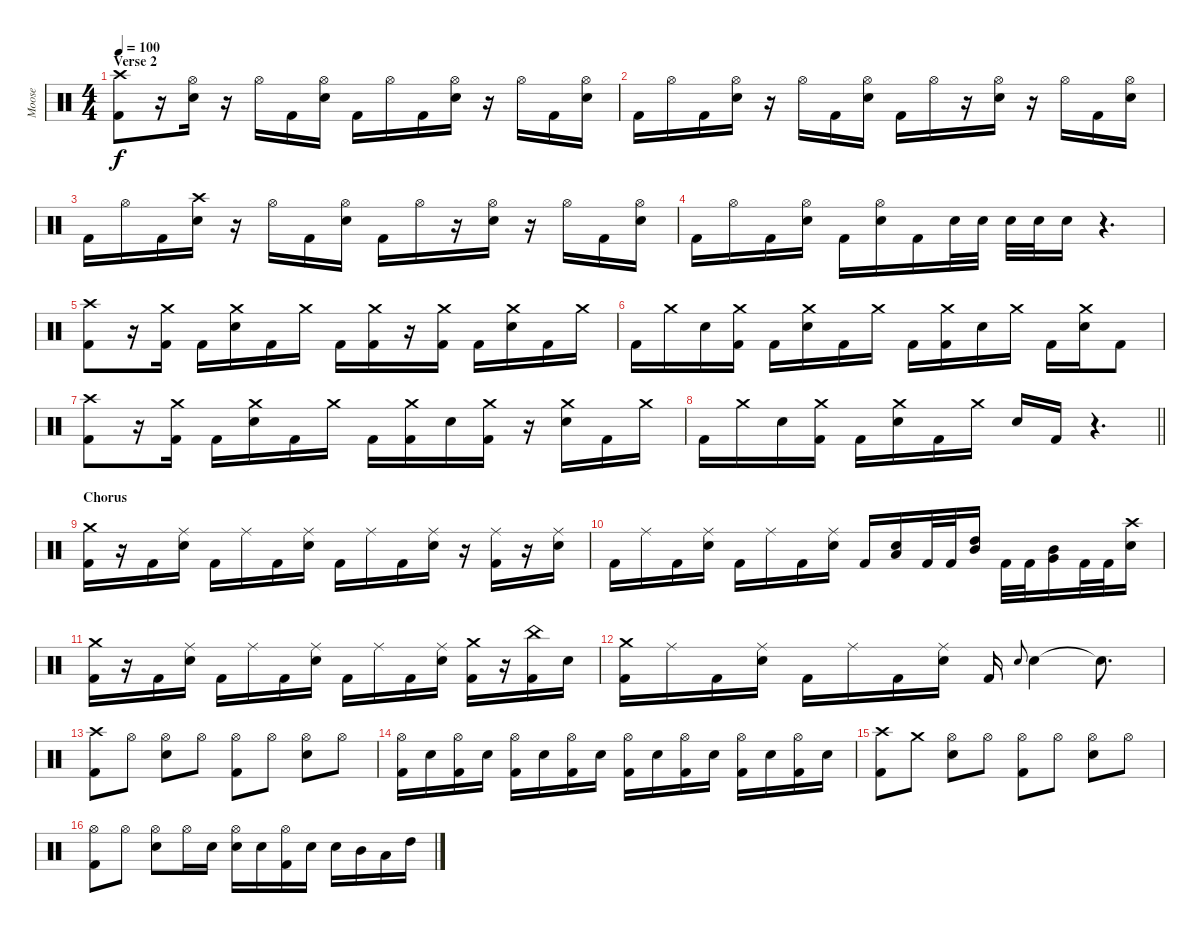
\track ("Moose" "Moose") {instrument percussion}
\staff {score}
\articulation defaults
\ts (4 4)
\section ("" "Verse 2")
\tempo 100
\clef neutral
\ks c
("Crash high (hit)" "Kick (hit) 2").8{dy f} r.16 ("Hi-Hat (open)" "Electric Snare (hit)").16 r.16 "Hi-Hat (open)".16 "Kick (hit) 2".16 ("Hi-Hat (open)" "Electric Snare (hit)").16 "Kick (hit) 2".16 "Hi-Hat (open)".16 "Kick (hit) 2".16 ("Hi-Hat (open)" "Electric Snare (hit)").16 r.16 "Hi-Hat (open)".16 "Kick (hit) 2".16 ("Hi-Hat (open)" "Electric Snare (hit)").16 |
"Kick (hit) 2".16 "Hi-Hat (open)".16 "Kick (hit) 2".16 ("Hi-Hat (open)" "Electric Snare (hit)").16 r.16 "Hi-Hat (open)".16 "Kick (hit) 2".16 ("Hi-Hat (open)" "Electric Snare (hit)").16 "Kick (hit) 2".16 "Hi-Hat (open)".16 r.16 ("Hi-Hat (open)" "Electric Snare (hit)").16 r.16 "Hi-Hat (open)".16 "Kick (hit) 2".16 ("Hi-Hat (open)" "Electric Snare (hit)").16 |
"Kick (hit) 2".16 "Hi-Hat (open)".16 "Kick (hit) 2".16 ("Crash high (hit)" "Electric Snare (hit)").16 r.16 "Hi-Hat (open)".16 "Kick (hit) 2".16 ("Hi-Hat (open)" "Electric Snare (hit)").16 "Kick (hit) 2".16 "Hi-Hat (open)".16 r.16 ("Hi-Hat (open)" "Electric Snare (hit)").16 r.16 "Hi-Hat (open)".16 "Kick (hit) 2".16 ("Hi-Hat (open)" "Electric Snare (hit)").16 |
"Kick (hit) 2".16 "Hi-Hat (open)".16 "Kick (hit) 2".16 ("Hi-Hat (open)" "Electric Snare (hit)").16 "Kick (hit) 2".16 ("Hi-Hat (open)" "Electric Snare (hit)").16 "Kick (hit) 2".16 "Electric Snare (hit)".32 "Electric Snare (hit)".32 "Electric Snare (hit)".32 "Electric Snare (hit)".32 "Electric Snare (hit)".16 r.4{d} |
("Crash high (hit)" "Kick (hit) 2").8 r.16 ("Crash medium (hit)" "Kick (hit) 2").16 "Kick (hit) 2".16 ("Crash medium (hit)" "Electric Snare (hit)").16 "Kick (hit) 2".16 "Crash medium (hit)".16 "Kick (hit) 2".16 ("Crash medium (hit)" "Kick (hit) 2").16 r.16 ("Crash medium (hit)" "Kick (hit) 2").16 "Kick (hit) 2".16 ("Crash medium (hit)" "Electric Snare (hit)").16 "Kick (hit) 2".16 "Crash medium (hit)".16 |
"Kick (hit) 2".16 "Crash medium (hit)".16 "Electric Snare (hit)".16 ("Crash medium (hit)" "Kick (hit) 2").16 "Kick (hit) 2".16 ("Crash medium (hit)" "Electric Snare (hit)").16 "Kick (hit) 2".16 "Crash medium (hit)".16 "Kick (hit) 2".16 ("Crash medium (hit)" "Kick (hit) 2").16 "Electric Snare (hit)".16 "Crash medium (hit)".16 "Kick (hit) 2".16 ("Crash medium (hit)" "Electric Snare (hit)").16 "Kick (hit) 2".8 |
("Crash high (hit)" "Kick (hit) 2").8 r.16 ("Crash medium (hit)" "Kick (hit) 2").16 "Kick (hit) 2".16 ("Crash medium (hit)" "Electric Snare (hit)").16 "Kick (hit) 2".16 "Crash medium (hit)".16 "Kick (hit) 2".16 ("Crash medium (hit)" "Kick (hit) 2").16 "Electric Snare (hit)".16 ("Crash medium (hit)" "Kick (hit) 2").16 r.16 ("Crash medium (hit)" "Electric Snare (hit)").16 "Kick (hit) 2".16 "Crash medium (hit)".16 |
\barLineRight lightlight "Kick (hit) 2".16 "Crash medium (hit)".16 "Electric Snare (hit)".16
("Crash medium (hit)" "Kick (hit) 2").16 "Kick (hit) 2".16 ("Crash medium (hit)" "Electric Snare (hit)").16 "Kick (hit) 2".16 "Crash medium (hit)".16 "Electric Snare (hit)".16 "Kick (hit) 2".16 r.4{d} |
\section ("" "Chorus")
("Crash medium (hit)" "Kick (hit) 2").16 r.16 "Kick (hit) 2".16 ("Ride (middle)" "Electric Snare (hit)").16 "Kick (hit) 2".16 "Ride (middle)".16 "Kick (hit) 2".16 ("Ride (middle)" "Electric Snare (hit)").16 "Kick (hit) 2".16 "Ride (middle)".16 "Kick (hit) 2".16 ("Ride (middle)" "Electric Snare (hit)").16 r.16 ("Ride (middle)" "Kick (hit) 2").16 r.16 ("Ride (middle)" "Electric Snare (hit)").16 |
"Kick (hit) 2".16 "Ride (middle)".16 "Kick (hit) 2".16 ("Ride (middle)" "Electric Snare (hit)").16 "Kick (hit) 2".16 "Ride (middle)".16 "Kick (hit) 2".16 ("Ride (middle)" "Electric Snare (hit)").16 "Kick (hit) 2".16 ("Low Tom (hit)" "Electric Snare (hit)").16 "Kick (hit) 2".32 "Kick (hit) 2".32 ("Mid Tom (hit)" "High Tom (hit)").16 "Kick (hit) 2".32 "Kick (hit) 2".32 ("Very Low Tom (hit)" "Mid Tom (hit)").16 "Kick (hit) 2".32 "Kick (hit) 2".32 ("Crash high (hit)" "Electric Snare (hit)").16 |
("Crash medium (hit)" "Kick (hit) 2").16 r.16 "Kick (hit) 2".16 ("Ride (middle)" "Electric Snare (hit)").16 "Kick (hit) 2".16 "Ride (middle)".16 "Kick (hit) 2".16 ("Ride (middle)" "Electric Snare (hit)").16 "Kick (hit) 2".16 "Ride (middle)".16 "Kick (hit) 2".16 ("Ride (middle)" "Electric Snare (hit)").16 ("Crash medium (hit)" "Kick (hit) 2").16 r.16 ("China (hit)" "Kick (hit) 2").16 "Electric Snare (hit)".16 |
("Crash medium (hit)" "Kick (hit) 2").16 "Ride (middle)".16 "Kick (hit) 2".16 ("Ride (middle)" "Electric Snare (hit)").16 "Kick (hit) 2".16 "Ride (middle)".16 "Kick (hit) 2".16 ("Ride (middle)" "Electric Snare (hit)").16 "Kick (hit) 2".16 "Electric Snare (hit)".8{gr onbeat} "Electric Snare (hit)".4 "Snare (hit)"{t}.8{d} |
("Crash high (hit)" "Kick (hit) 2").8 "Hi-Hat (open)".8 ("Hi-Hat (open)" "Electric Snare (hit)").8 "Hi-Hat (open)".8 ("Hi-Hat (open)" "Kick (hit) 2").8 "Hi-Hat (open)".8 ("Hi-Hat (open)" "Electric Snare (hit)").8 "Hi-Hat (open)".8 |
("Hi-Hat (open)" "Kick (hit) 2").16 "Electric Snare (hit)".16 ("Hi-Hat (open)" "Kick (hit) 2").16 "Electric Snare (hit)".16 ("Hi-Hat (open)" "Kick (hit) 2").16 "Electric Snare (hit)".16 ("Hi-Hat (open)" "Kick (hit) 2").16 "Electric Snare (hit)".16 ("Hi-Hat (open)" "Kick (hit) 2").16 "Electric Snare (hit)".16 ("Hi-Hat (open)" "Kick (hit) 2").16 "Electric Snare (hit)".16 ("Hi-Hat (open)" "Kick (hit) 2").16 "Electric Snare (hit)".16 ("Hi-Hat (open)" "Kick (hit) 2").16 "Electric Snare (hit)".16 |
("Crash high (hit)" "Kick (hit) 2").8 "Crash medium (hit)".8 ("Hi-Hat (open)" "Electric Snare (hit)").8 "Hi-Hat (open)".8 ("Hi-Hat (open)" "Kick (hit) 2").8 "Hi-Hat (open)".8 ("Hi-Hat (open)" "Electric Snare (hit)").8 "Hi-Hat (open)".8 |
("Hi-Hat (open)" "Kick (hit) 2").8 "Hi-Hat (open)".8 ("Hi-Hat (open)" "Electric Snare (hit)").8 "Hi-Hat (open)".16 "Electric Snare (hit)".16 ("Hi-Hat (open)" "Electric Snare (hit)").16 "Electric Snare (hit)".16 ("Hi-Hat (open)" "Kick (hit) 2").16 "Electric Snare (hit)".16 "Electric Snare (hit)".16 "Mid Tom (hit)".16 "Low Tom (hit)".16 "High Tom (hit)".16
